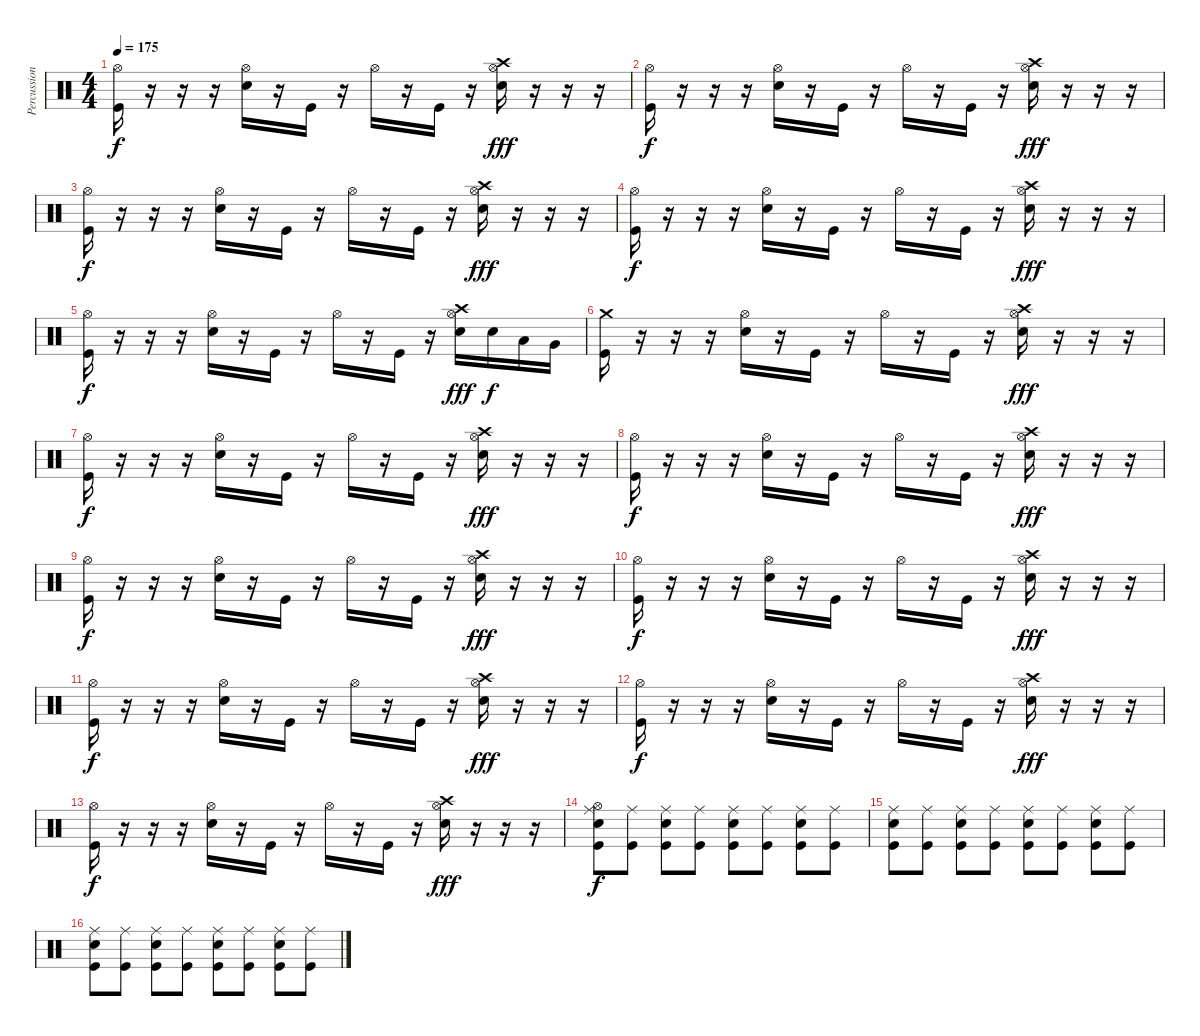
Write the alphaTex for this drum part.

\track ("Percussions" "Percussion") {instrument percussion}
\staff {score}
\articulation defaults
\ts (4 4)
\tempo 175
\clef neutral
\ks c
("Hi-Hat (open)" "Kick (hit)").16{dy f} r.16 r.16 r.16 ("Hi-Hat (open)" "Electric Snare (hit)").16 r.16 "Kick (hit)".16 r.16 "Hi-Hat (open)".16 r.16 "Kick (hit)".16 r.16 ("Hi-Hat (open)" "Crash high (hit)" "Electric Snare (hit)").16{dy fff} r.16 r.16 r.16 |
("Hi-Hat (open)" "Kick (hit)").16{dy f} r.16 r.16 r.16 ("Hi-Hat (open)" "Electric Snare (hit)").16 r.16 "Kick (hit)".16 r.16 "Hi-Hat (open)".16 r.16 "Kick (hit)".16 r.16 ("Hi-Hat (open)" "Crash high (hit)" "Electric Snare (hit)").16{dy fff} r.16 r.16 r.16 |
("Hi-Hat (open)" "Kick (hit)").16{dy f} r.16 r.16 r.16 ("Hi-Hat (open)" "Electric Snare (hit)").16 r.16 "Kick (hit)".16 r.16 "Hi-Hat (open)".16 r.16 "Kick (hit)".16 r.16 ("Hi-Hat (open)" "Crash high (hit)" "Electric Snare (hit)").16{dy fff} r.16 r.16 r.16 |
("Hi-Hat (open)" "Kick (hit)").16{dy f} r.16 r.16 r.16 ("Hi-Hat (open)" "Electric Snare (hit)").16 r.16 "Kick (hit)".16 r.16 "Hi-Hat (open)".16 r.16 "Kick (hit)".16 r.16 ("Hi-Hat (open)" "Crash high (hit)" "Electric Snare (hit)").16{dy fff} r.16 r.16 r.16 |
("Hi-Hat (open)" "Kick (hit)").16{dy f} r.16 r.16 r.16 ("Hi-Hat (open)" "Electric Snare (hit)").16 r.16 "Kick (hit)".16 r.16 "Hi-Hat (open)".16 r.16 "Kick (hit)".16 r.16 ("Hi-Hat (open)" "Crash high (hit)" "Electric Snare (hit)").16{dy fff} "Electric Snare (hit)".16{dy f} "Low Tom (hit)".16 "Very Low Tom (hit)".16 |
("Crash medium (hit)" "Kick (hit)").16 r.16 r.16 r.16 ("Hi-Hat (open)" "Electric Snare (hit)").16 r.16 "Kick (hit)".16 r.16 "Hi-Hat (open)".16 r.16 "Kick (hit)".16 r.16 ("Hi-Hat (open)" "Crash high (hit)" "Electric Snare (hit)").16{dy fff} r.16 r.16 r.16 |
("Hi-Hat (open)" "Kick (hit)").16{dy f} r.16 r.16 r.16 ("Hi-Hat (open)" "Electric Snare (hit)").16 r.16 "Kick (hit)".16 r.16 "Hi-Hat (open)".16 r.16 "Kick (hit)".16 r.16 ("Hi-Hat (open)" "Crash high (hit)" "Electric Snare (hit)").16{dy fff} r.16 r.16 r.16 |
("Hi-Hat (open)" "Kick (hit)").16{dy f} r.16 r.16 r.16 ("Hi-Hat (open)" "Electric Snare (hit)").16 r.16 "Kick (hit)".16 r.16 "Hi-Hat (open)".16 r.16 "Kick (hit)".16 r.16 ("Hi-Hat (open)" "Crash high (hit)" "Electric Snare (hit)").16{dy fff} r.16 r.16 r.16 |
("Hi-Hat (open)" "Kick (hit)").16{dy f} r.16 r.16 r.16 ("Hi-Hat (open)" "Electric Snare (hit)").16 r.16 "Kick (hit)".16 r.16 "Hi-Hat (open)".16 r.16 "Kick (hit)".16 r.16 ("Hi-Hat (open)" "Crash high (hit)" "Electric Snare (hit)").16{dy fff} r.16 r.16 r.16 |
("Hi-Hat (open)" "Kick (hit)").16{dy f} r.16 r.16 r.16 ("Hi-Hat (open)" "Electric Snare (hit)").16 r.16 "Kick (hit)".16 r.16 "Hi-Hat (open)".16 r.16 "Kick (hit)".16 r.16 ("Hi-Hat (open)" "Crash high (hit)" "Electric Snare (hit)").16{dy fff} r.16 r.16 r.16 |
("Hi-Hat (open)" "Kick (hit)").16{dy f} r.16 r.16 r.16 ("Hi-Hat (open)" "Electric Snare (hit)").16 r.16 "Kick (hit)".16 r.16 "Hi-Hat (open)".16 r.16 "Kick (hit)".16 r.16 ("Hi-Hat (open)" "Crash high (hit)" "Electric Snare (hit)").16{dy fff} r.16 r.16 r.16 |
("Hi-Hat (open)" "Kick (hit)").16{dy f} r.16 r.16 r.16 ("Hi-Hat (open)" "Electric Snare (hit)").16 r.16 "Kick (hit)".16 r.16 "Hi-Hat (open)".16 r.16 "Kick (hit)".16 r.16 ("Hi-Hat (open)" "Crash high (hit)" "Electric Snare (hit)").16{dy fff} r.16 r.16 r.16 |
("Hi-Hat (open)" "Kick (hit)").16{dy f} r.16 r.16 r.16 ("Hi-Hat (open)" "Electric Snare (hit)").16 r.16 "Kick (hit)".16 r.16 "Hi-Hat (open)".16 r.16 "Kick (hit)".16 r.16 ("Hi-Hat (open)" "Crash high (hit)" "Electric Snare (hit)").16{dy fff} r.16 r.16 r.16 |
("Hi-Hat (open)" "Ride (middle)" "Electric Snare (hit)" "Kick (hit)").8{dy f} ("Ride (middle)" "Kick (hit)").8 ("Ride (middle)" "Electric Snare (hit)" "Kick (hit)").8 ("Ride (middle)" "Kick (hit)").8 ("Ride (middle)" "Electric Snare (hit)" "Kick (hit)").8 ("Ride (middle)" "Kick (hit)").8 ("Ride (middle)" "Electric Snare (hit)" "Kick (hit)").8 ("Ride (middle)" "Kick (hit)").8 |
("Ride (middle)" "Electric Snare (hit)" "Kick (hit)").8 ("Ride (middle)" "Kick (hit)").8 ("Ride (middle)" "Electric Snare (hit)" "Kick (hit)").8 ("Ride (middle)" "Kick (hit)").8 ("Ride (middle)" "Electric Snare (hit)" "Kick (hit)").8 ("Ride (middle)" "Kick (hit)").8 ("Ride (middle)" "Electric Snare (hit)" "Kick (hit)").8 ("Ride (middle)" "Kick (hit)").8 |
("Ride (middle)" "Electric Snare (hit)" "Kick (hit)").8 ("Ride (middle)" "Kick (hit)").8 ("Ride (middle)" "Electric Snare (hit)" "Kick (hit)").8 ("Ride (middle)" "Kick (hit)").8 ("Ride (middle)" "Electric Snare (hit)" "Kick (hit)").8 ("Ride (middle)" "Kick (hit)").8 ("Ride (middle)" "Electric Snare (hit)" "Kick (hit)").8 ("Ride (middle)" "Kick (hit)").8
